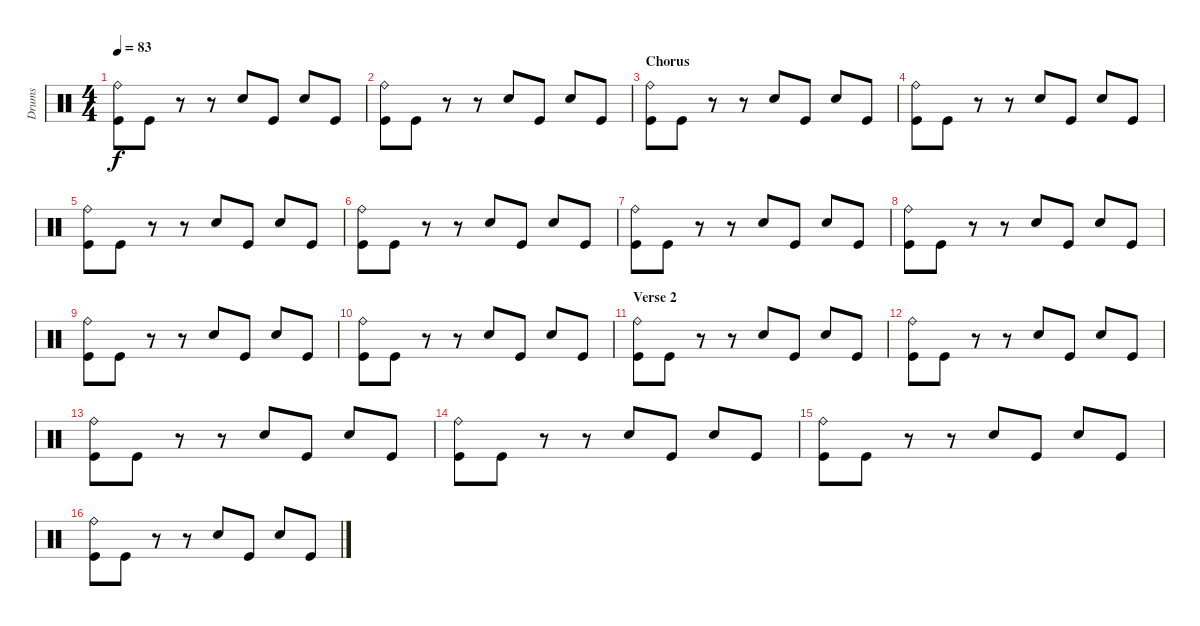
\track ("Drums" "Drums") {instrument percussion}
\staff {score}
\articulation defaults
\ts (4 4)
\tempo 83
\clef neutral
\ks c
("Ride (bell)" "Kick (hit)").8{dy f} "Kick (hit)".8 r.8 r.8 "Hand Clap (hit)".8 "Kick (hit)".8 "Hand Clap (hit)".8 "Kick (hit)".8 |
("Ride (bell)" "Kick (hit)").8 "Kick (hit)".8 r.8 r.8 "Hand Clap (hit)".8 "Kick (hit)".8 "Hand Clap (hit)".8 "Kick (hit)".8 |
\section ("" "Chorus ")
("Ride (bell)" "Kick (hit)").8 "Kick (hit)".8 r.8 r.8 "Hand Clap (hit)".8 "Kick (hit)".8 "Hand Clap (hit)".8 "Kick (hit)".8 |
("Ride (bell)" "Kick (hit)").8 "Kick (hit)".8 r.8 r.8 "Hand Clap (hit)".8 "Kick (hit)".8 "Hand Clap (hit)".8 "Kick (hit)".8 |
("Ride (bell)" "Kick (hit)").8 "Kick (hit)".8 r.8 r.8 "Hand Clap (hit)".8 "Kick (hit)".8 "Hand Clap (hit)".8 "Kick (hit)".8 |
("Ride (bell)" "Kick (hit)").8 "Kick (hit)".8 r.8 r.8 "Hand Clap (hit)".8 "Kick (hit)".8 "Hand Clap (hit)".8 "Kick (hit)".8 |
("Ride (bell)" "Kick (hit)").8 "Kick (hit)".8 r.8 r.8 "Hand Clap (hit)".8 "Kick (hit)".8 "Hand Clap (hit)".8 "Kick (hit)".8 |
("Ride (bell)" "Kick (hit)").8 "Kick (hit)".8 r.8 r.8 "Hand Clap (hit)".8 "Kick (hit)".8 "Hand Clap (hit)".8 "Kick (hit)".8 |
("Ride (bell)" "Kick (hit)").8 "Kick (hit)".8 r.8 r.8 "Hand Clap (hit)".8 "Kick (hit)".8 "Hand Clap (hit)".8 "Kick (hit)".8 |
("Ride (bell)" "Kick (hit)").8 "Kick (hit)".8 r.8 r.8 "Hand Clap (hit)".8 "Kick (hit)".8 "Hand Clap (hit)".8 "Kick (hit)".8 |
\section ("" "Verse 2 ")
("Ride (bell)" "Kick (hit)").8 "Kick (hit)".8 r.8 r.8 "Hand Clap (hit)".8 "Kick (hit)".8 "Hand Clap (hit)".8 "Kick (hit)".8 |
("Ride (bell)" "Kick (hit)").8 "Kick (hit)".8 r.8 r.8 "Hand Clap (hit)".8 "Kick (hit)".8 "Hand Clap (hit)".8 "Kick (hit)".8 |
("Ride (bell)" "Kick (hit)").8 "Kick (hit)".8 r.8 r.8 "Hand Clap (hit)".8 "Kick (hit)".8 "Hand Clap (hit)".8 "Kick (hit)".8 |
("Ride (bell)" "Kick (hit)").8 "Kick (hit)".8 r.8 r.8 "Hand Clap (hit)".8 "Kick (hit)".8 "Hand Clap (hit)".8 "Kick (hit)".8 |
("Ride (bell)" "Kick (hit)").8 "Kick (hit)".8 r.8 r.8 "Hand Clap (hit)".8 "Kick (hit)".8 "Hand Clap (hit)".8 "Kick (hit)".8 |
("Ride (bell)" "Kick (hit)").8 "Kick (hit)".8 r.8 r.8 "Hand Clap (hit)".8 "Kick (hit)".8 "Hand Clap (hit)".8 "Kick (hit)".8
